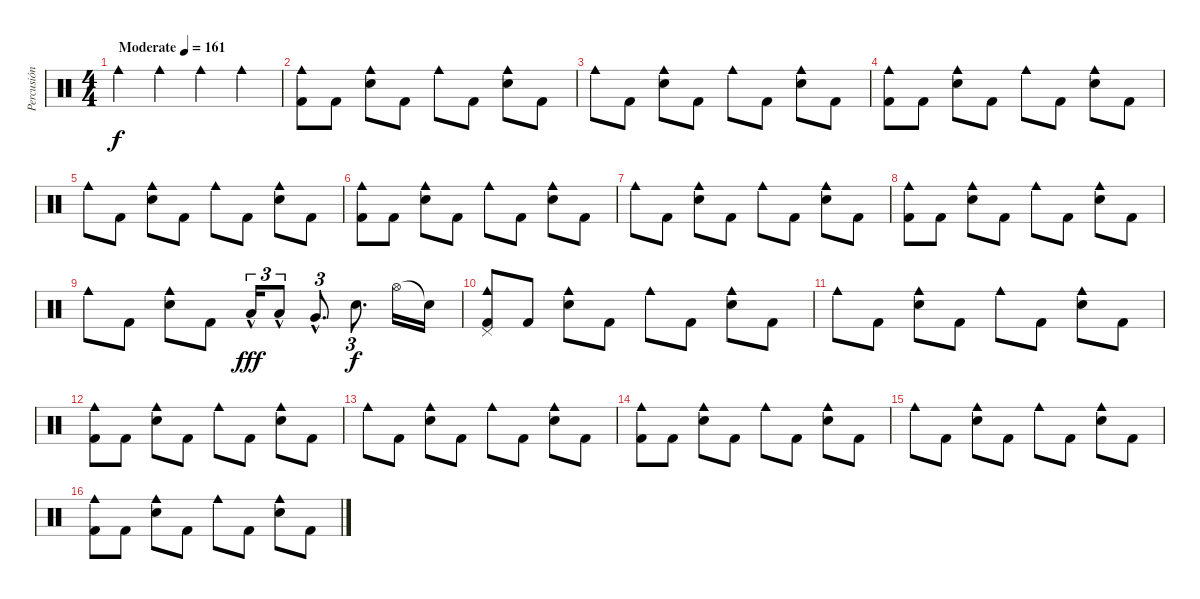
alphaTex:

\track ("Percusión" "Percusión") {instrument percussion}
\staff {score}
\articulation defaults
\ts (4 4)
\tempo (161 "Moderate")
\clef neutral
\ks c "Cowbell medium (hit)".4{dy f} "Cowbell medium (hit)".4 "Cowbell medium (hit)".4 "Cowbell medium (hit)".4
|
("Cowbell medium (hit)" "Kick (hit) 2").8 "Kick (hit) 2".8 ("Cowbell medium (hit)" "Snare (hit) 2").8 "Kick (hit) 2".8 "Cowbell medium (hit)".8 "Kick (hit) 2".8 ("Cowbell medium (hit)" "Snare (hit) 2").8 "Kick (hit) 2".8 |
"Cowbell medium (hit)".8 "Kick (hit) 2".8 ("Cowbell medium (hit)" "Snare (hit) 2").8 "Kick (hit) 2".8 "Cowbell medium (hit)".8 "Kick (hit) 2".8 ("Cowbell medium (hit)" "Snare (hit) 2").8 "Kick (hit) 2".8 |
("Cowbell medium (hit)" "Kick (hit) 2").8 "Kick (hit) 2".8 ("Cowbell medium (hit)" "Snare (hit) 2").8 "Kick (hit) 2".8 "Cowbell medium (hit)".8 "Kick (hit) 2".8 ("Cowbell medium (hit)" "Snare (hit) 2").8 "Kick (hit) 2".8 |
"Cowbell medium (hit)".8 "Kick (hit) 2".8 ("Cowbell medium (hit)" "Snare (hit) 2").8 "Kick (hit) 2".8 "Cowbell medium (hit)".8 "Kick (hit) 2".8 ("Cowbell medium (hit)" "Snare (hit) 2").8 "Kick (hit) 2".8 |
("Cowbell medium (hit)" "Kick (hit) 2").8 "Kick (hit) 2".8 ("Cowbell medium (hit)" "Snare (hit) 2").8 "Kick (hit) 2".8 "Cowbell medium (hit)".8 "Kick (hit) 2".8 ("Cowbell medium (hit)" "Snare (hit) 2").8 "Kick (hit) 2".8 |
"Cowbell medium (hit)".8 "Kick (hit) 2".8 ("Cowbell medium (hit)" "Snare (hit) 2").8 "Kick (hit) 2".8 "Cowbell medium (hit)".8 "Kick (hit) 2".8 ("Cowbell medium (hit)" "Snare (hit) 2").8 "Kick (hit) 2".8 |
("Cowbell medium (hit)" "Kick (hit) 2").8 "Kick (hit) 2".8 ("Cowbell medium (hit)" "Snare (hit) 2").8 "Kick (hit) 2".8 "Cowbell medium (hit)".8 "Kick (hit) 2".8 ("Cowbell medium (hit)" "Snare (hit) 2").8 "Kick (hit) 2".8 |
"Cowbell medium (hit)".8 "Kick (hit) 2".8 ("Cowbell medium (hit)" "Snare (hit) 2").8 "Kick (hit) 2".8 "Low Tom (hit)"{hac}.16{tu (3 2) dy fff} "Low Tom (hit)"{hac}.8{tu (3 2)} "Very Low Tom (hit)"{hac}.8{d tu (3 2)} "Snare (hit) 2".8{d tu (3 2) dy f} "Hi-Hat (open)".16 "Snare (hit)"{t}.16 |
("Cowbell medium (hit)" "Pedal Hi-Hat (hit)" "Kick (hit) 2").8 "Kick (hit) 2".8 ("Cowbell medium (hit)" "Snare (hit) 2").8 "Kick (hit) 2".8 "Cowbell medium (hit)".8 "Kick (hit) 2".8 ("Cowbell medium (hit)" "Snare (hit) 2").8 "Kick (hit) 2".8 |
"Cowbell medium (hit)".8 "Kick (hit) 2".8 ("Cowbell medium (hit)" "Snare (hit) 2").8 "Kick (hit) 2".8 "Cowbell medium (hit)".8 "Kick (hit) 2".8 ("Cowbell medium (hit)" "Snare (hit) 2").8 "Kick (hit) 2".8 |
("Cowbell medium (hit)" "Kick (hit) 2").8 "Kick (hit) 2".8 ("Cowbell medium (hit)" "Snare (hit) 2").8 "Kick (hit) 2".8 "Cowbell medium (hit)".8 "Kick (hit) 2".8 ("Cowbell medium (hit)" "Snare (hit) 2").8 "Kick (hit) 2".8 |
"Cowbell medium (hit)".8 "Kick (hit) 2".8 ("Cowbell medium (hit)" "Snare (hit) 2").8 "Kick (hit) 2".8 "Cowbell medium (hit)".8 "Kick (hit) 2".8 ("Cowbell medium (hit)" "Snare (hit) 2").8 "Kick (hit) 2".8 |
("Cowbell medium (hit)" "Kick (hit) 2").8 "Kick (hit) 2".8 ("Cowbell medium (hit)" "Snare (hit) 2").8 "Kick (hit) 2".8 "Cowbell medium (hit)".8 "Kick (hit) 2".8 ("Cowbell medium (hit)" "Snare (hit) 2").8 "Kick (hit) 2".8 |
"Cowbell medium (hit)".8 "Kick (hit) 2".8 ("Cowbell medium (hit)" "Snare (hit) 2").8 "Kick (hit) 2".8 "Cowbell medium (hit)".8 "Kick (hit) 2".8 ("Cowbell medium (hit)" "Snare (hit) 2").8 "Kick (hit) 2".8 |
("Cowbell medium (hit)" "Kick (hit) 2").8 "Kick (hit) 2".8 ("Cowbell medium (hit)" "Snare (hit) 2").8 "Kick (hit) 2".8 "Cowbell medium (hit)".8 "Kick (hit) 2".8 ("Cowbell medium (hit)" "Snare (hit) 2").8 "Kick (hit) 2".8
